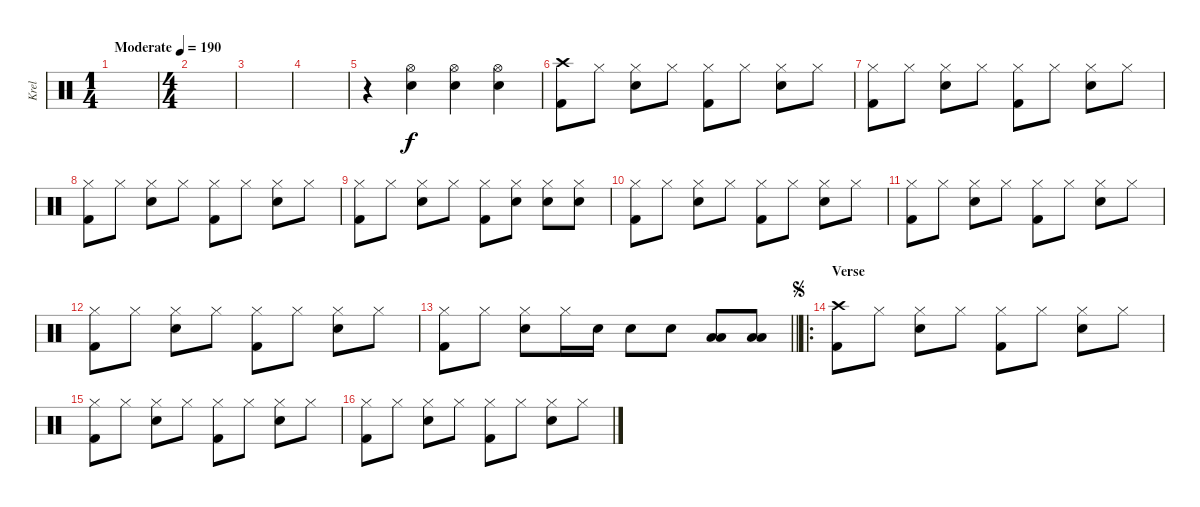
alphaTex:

\track ("Krel" "Krel") {instrument percussion}
\staff {score}
\articulation defaults
\ts (1 4)
\tempo (190 "Moderate")
\clef neutral
\ks c
|
\ts (4 4)
|
|
|
r.4 ("Hi-Hat (open)" "Snare (hit) 2").4 ("Hi-Hat (open)" "Snare (hit) 2").4 ("Hi-Hat (open)" "Snare (hit) 2").4 |
("Crash high (hit)" "Kick (hit) 2").8 "Hi-Hat (closed)".8 ("Hi-Hat (closed)" "Snare (hit) 2").8 "Hi-Hat (closed)".8 ("Hi-Hat (closed)" "Kick (hit) 2").8 "Hi-Hat (closed)".8 ("Hi-Hat (closed)" "Snare (hit) 2").8 "Hi-Hat (closed)".8 |
("Hi-Hat (closed)" "Kick (hit) 2").8 "Hi-Hat (closed)".8 ("Hi-Hat (closed)" "Snare (hit) 2").8 "Hi-Hat (closed)".8 ("Hi-Hat (closed)" "Kick (hit) 2").8 "Hi-Hat (closed)".8 ("Hi-Hat (closed)" "Snare (hit) 2").8 "Hi-Hat (closed)".8 |
("Hi-Hat (closed)" "Kick (hit) 2").8 "Hi-Hat (closed)".8 ("Hi-Hat (closed)" "Snare (hit) 2").8 "Hi-Hat (closed)".8 ("Hi-Hat (closed)" "Kick (hit) 2").8 "Hi-Hat (closed)".8 ("Hi-Hat (closed)" "Snare (hit) 2").8 "Hi-Hat (closed)".8 |
("Hi-Hat (closed)" "Kick (hit) 2").8 "Hi-Hat (closed)".8 ("Hi-Hat (closed)" "Snare (hit) 2").8 "Hi-Hat (closed)".8 ("Hi-Hat (closed)" "Kick (hit) 2").8 ("Hi-Hat (closed)" "Snare (hit) 2").8 ("Hi-Hat (closed)" "Snare (hit) 2").8 ("Hi-Hat (closed)" "Snare (hit) 2").8 |
("Hi-Hat (closed)" "Kick (hit) 2").8 "Hi-Hat (closed)".8 ("Hi-Hat (closed)" "Snare (hit) 2").8 "Hi-Hat (closed)".8 ("Hi-Hat (closed)" "Kick (hit) 2").8 "Hi-Hat (closed)".8 ("Hi-Hat (closed)" "Snare (hit) 2").8 "Hi-Hat (closed)".8 |
("Hi-Hat (closed)" "Kick (hit) 2").8 "Hi-Hat (closed)".8 ("Hi-Hat (closed)" "Snare (hit) 2").8 "Hi-Hat (closed)".8 ("Hi-Hat (closed)" "Kick (hit) 2").8 "Hi-Hat (closed)".8 ("Hi-Hat (closed)" "Snare (hit) 2").8 "Hi-Hat (closed)".8 |
("Hi-Hat (closed)" "Kick (hit) 2").8 "Hi-Hat (closed)".8 ("Hi-Hat (closed)" "Snare (hit) 2").8 "Hi-Hat (closed)".8 ("Hi-Hat (closed)" "Kick (hit) 2").8 "Hi-Hat (closed)".8 ("Hi-Hat (closed)" "Snare (hit) 2").8 "Hi-Hat (closed)".8 |
\barLineRight lightlight
("Hi-Hat (closed)" "Kick (hit) 2").8 "Hi-Hat (closed)".8 ("Hi-Hat (closed)" "Snare (hit) 2").8 "Hi-Hat (closed)".16 "Snare (hit) 2".16 "Snare (hit) 2".8 "Snare (hit) 2".8 ("Low Tom (hit)" "Low Floor Tom (hit)").8 ("Low Tom (hit)" "Low Floor Tom (hit)").8 |
\ro
\section ("" "Verse")
\jump segno
("Crash high (hit)" "Kick (hit) 2").8 "Hi-Hat (closed)".8 ("Hi-Hat (closed)" "Snare (hit) 2").8 "Hi-Hat (closed)".8 ("Hi-Hat (closed)" "Kick (hit) 2").8 "Hi-Hat (closed)".8 ("Hi-Hat (closed)" "Snare (hit) 2").8 "Hi-Hat (closed)".8 |
("Hi-Hat (closed)" "Kick (hit) 2").8 "Hi-Hat (closed)".8 ("Hi-Hat (closed)" "Snare (hit) 2").8 "Hi-Hat (closed)".8 ("Hi-Hat (closed)" "Kick (hit) 2").8 "Hi-Hat (closed)".8 ("Hi-Hat (closed)" "Snare (hit) 2").8 "Hi-Hat (closed)".8 |
("Hi-Hat (closed)" "Kick (hit) 2").8 "Hi-Hat (closed)".8 ("Hi-Hat (closed)" "Snare (hit) 2").8 "Hi-Hat (closed)".8 ("Hi-Hat (closed)" "Kick (hit) 2").8 "Hi-Hat (closed)".8 ("Hi-Hat (closed)" "Snare (hit) 2").8 "Hi-Hat (closed)".8
